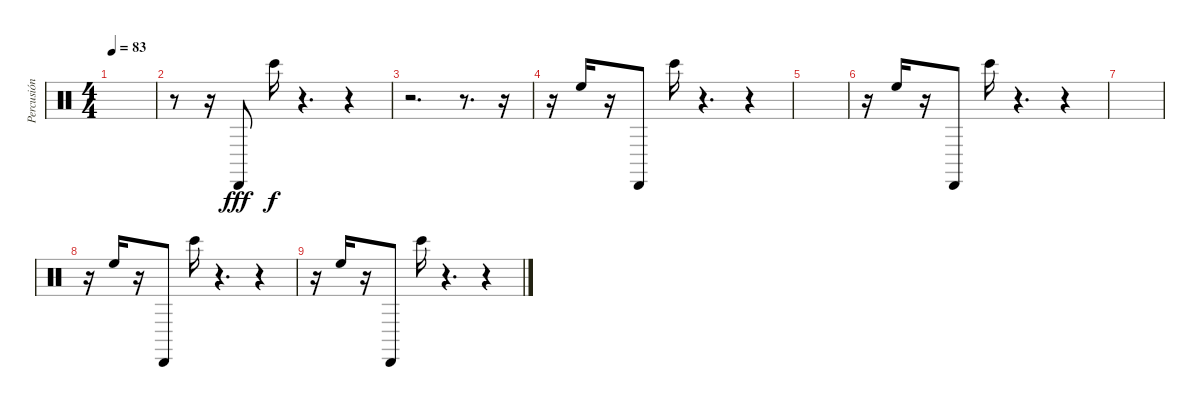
\track ("Percusión" "Percusión") {instrument percussion}
\staff {score}
\articulation defaults
\ts (4 4)
\tempo 83
\clef neutral
\ks c
|
r.8 r.16 "Cabasa (hit)".8{dy fff} "Bongo High (hit)".16{dy f balance 16} r.4{d balance 8} r.4 |
r.2{d} r.8{d} r.16 |
r.16 "High Floor Tom (hit)".16 r.16 "Cabasa (hit)".8 "Bongo High (hit)".16{balance 16} r.4{d balance 8} r.4 |
|
r.16 "High Floor Tom (hit)".16 r.16 "Cabasa (hit)".8 "Bongo High (hit)".16{balance 16} r.4{d balance 8} r.4 |
|
r.16 "High Floor Tom (hit)".16 r.16 "Cabasa (hit)".8 "Bongo High (hit)".16{balance 16} r.4{d balance 8} r.4 |
r.16 "High Floor Tom (hit)".16 r.16 "Cabasa (hit)".8 "Bongo High (hit)".16{balance 16} r.4{d balance 8} r.4
